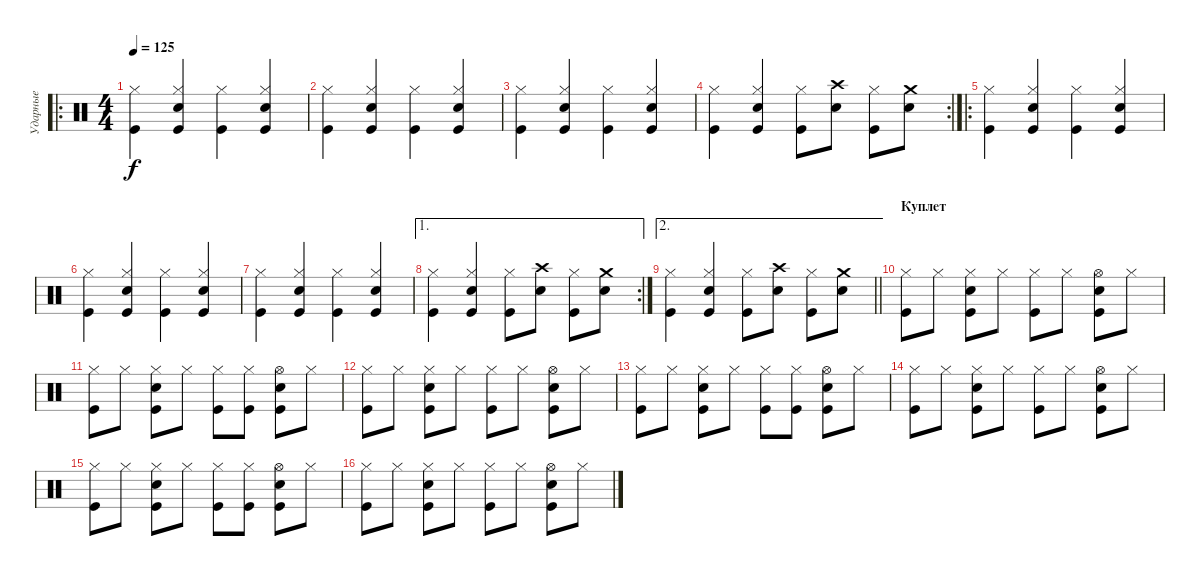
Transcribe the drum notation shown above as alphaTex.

\track ("Ударные" "Ударные") {instrument percussion}
\staff {score}
\articulation defaults
\ro
\ts (4 4)
\tempo 125
\clef neutral
\ks c
("Kick (hit)" "Hi-Hat (closed)").4{dy f} ("Kick (hit)" "Snare (hit) 2" "Hi-Hat (closed)").4 ("Kick (hit)" "Hi-Hat (closed)").4 ("Kick (hit)" "Snare (hit) 2" "Hi-Hat (closed)").4 |
("Kick (hit)" "Hi-Hat (closed)").4 ("Kick (hit)" "Snare (hit) 2" "Hi-Hat (closed)").4 ("Kick (hit)" "Hi-Hat (closed)").4 ("Kick (hit)" "Snare (hit) 2" "Hi-Hat (closed)").4 |
("Kick (hit)" "Hi-Hat (closed)").4 ("Kick (hit)" "Snare (hit) 2" "Hi-Hat (closed)").4 ("Kick (hit)" "Hi-Hat (closed)").4 ("Kick (hit)" "Snare (hit) 2" "Hi-Hat (closed)").4 |
\rc 2
("Kick (hit)" "Hi-Hat (closed)").4 ("Kick (hit)" "Snare (hit) 2" "Hi-Hat (closed)").4 ("Kick (hit)" "Hi-Hat (closed)").8 ("Snare (hit) 2" "Crash high (hit)").8 ("Kick (hit)" "Hi-Hat (closed)").8 ("Snare (hit) 2" "Crash medium (hit)").8 |
\ro
("Kick (hit)" "Hi-Hat (closed)").4 ("Kick (hit)" "Snare (hit) 2" "Hi-Hat (closed)").4 ("Kick (hit)" "Hi-Hat (closed)").4 ("Kick (hit)" "Snare (hit) 2" "Hi-Hat (closed)").4 |
("Kick (hit)" "Hi-Hat (closed)").4 ("Kick (hit)" "Snare (hit) 2" "Hi-Hat (closed)").4 ("Kick (hit)" "Hi-Hat (closed)").4 ("Kick (hit)" "Snare (hit) 2" "Hi-Hat (closed)").4 |
("Kick (hit)" "Hi-Hat (closed)").4 ("Kick (hit)" "Snare (hit) 2" "Hi-Hat (closed)").4 ("Kick (hit)" "Hi-Hat (closed)").4 ("Kick (hit)" "Snare (hit) 2" "Hi-Hat (closed)").4 |
\ae 1
\rc 2
("Kick (hit)" "Hi-Hat (closed)").4 ("Kick (hit)" "Snare (hit) 2" "Hi-Hat (closed)").4 ("Kick (hit)" "Hi-Hat (closed)").8 ("Snare (hit) 2" "Crash high (hit)").8 ("Kick (hit)" "Hi-Hat (closed)").8 ("Snare (hit) 2" "Crash medium (hit)").8 |
\ae 2
\barLineRight lightlight
("Kick (hit)" "Hi-Hat (closed)").4 ("Kick (hit)" "Snare (hit) 2" "Hi-Hat (closed)").4 ("Kick (hit)" "Hi-Hat (closed)").8 ("Snare (hit) 2" "Crash high (hit)").8 ("Kick (hit)" "Hi-Hat (closed)").8 ("Snare (hit) 2" "Crash medium (hit)").8 |
\section ("" "Куплет")
("Hi-Hat (closed)" "Kick (hit)").8 "Hi-Hat (closed)".8 ("Hi-Hat (closed)" "Kick (hit)" "Snare (hit) 2").8 "Hi-Hat (closed)".8 ("Hi-Hat (closed)" "Kick (hit)").8 "Hi-Hat (closed)".8 ("Hi-Hat (open)" "Kick (hit)" "Snare (hit) 2").8 "Hi-Hat (closed)".8 |
("Hi-Hat (closed)" "Kick (hit)").8 "Hi-Hat (closed)".8 ("Hi-Hat (closed)" "Kick (hit)" "Snare (hit) 2").8 "Hi-Hat (closed)".8 ("Hi-Hat (closed)" "Kick (hit)").8 ("Hi-Hat (closed)" "Kick (hit)").8 ("Hi-Hat (open)" "Kick (hit)" "Snare (hit) 2").8 "Hi-Hat (closed)".8 |
("Hi-Hat (closed)" "Kick (hit)").8 "Hi-Hat (closed)".8 ("Hi-Hat (closed)" "Kick (hit)" "Snare (hit) 2").8 "Hi-Hat (closed)".8 ("Hi-Hat (closed)" "Kick (hit)").8 "Hi-Hat (closed)".8 ("Hi-Hat (open)" "Kick (hit)" "Snare (hit) 2").8 "Hi-Hat (closed)".8 |
("Hi-Hat (closed)" "Kick (hit)").8 "Hi-Hat (closed)".8 ("Hi-Hat (closed)" "Kick (hit)" "Snare (hit) 2").8 "Hi-Hat (closed)".8 ("Hi-Hat (closed)" "Kick (hit)").8 ("Hi-Hat (closed)" "Kick (hit)").8 ("Hi-Hat (open)" "Kick (hit)" "Snare (hit) 2").8 "Hi-Hat (closed)".8 |
("Hi-Hat (closed)" "Kick (hit)").8 "Hi-Hat (closed)".8 ("Hi-Hat (closed)" "Kick (hit)" "Snare (hit) 2").8 "Hi-Hat (closed)".8 ("Hi-Hat (closed)" "Kick (hit)").8 "Hi-Hat (closed)".8 ("Hi-Hat (open)" "Kick (hit)" "Snare (hit) 2").8 "Hi-Hat (closed)".8 |
("Hi-Hat (closed)" "Kick (hit)").8 "Hi-Hat (closed)".8 ("Hi-Hat (closed)" "Kick (hit)" "Snare (hit) 2").8 "Hi-Hat (closed)".8 ("Hi-Hat (closed)" "Kick (hit)").8 ("Hi-Hat (closed)" "Kick (hit)").8 ("Hi-Hat (open)" "Kick (hit)" "Snare (hit) 2").8 "Hi-Hat (closed)".8 |
("Hi-Hat (closed)" "Kick (hit)").8 "Hi-Hat (closed)".8 ("Hi-Hat (closed)" "Kick (hit)" "Snare (hit) 2").8 "Hi-Hat (closed)".8 ("Hi-Hat (closed)" "Kick (hit)").8 "Hi-Hat (closed)".8 ("Hi-Hat (open)" "Kick (hit)" "Snare (hit) 2").8 "Hi-Hat (closed)".8
